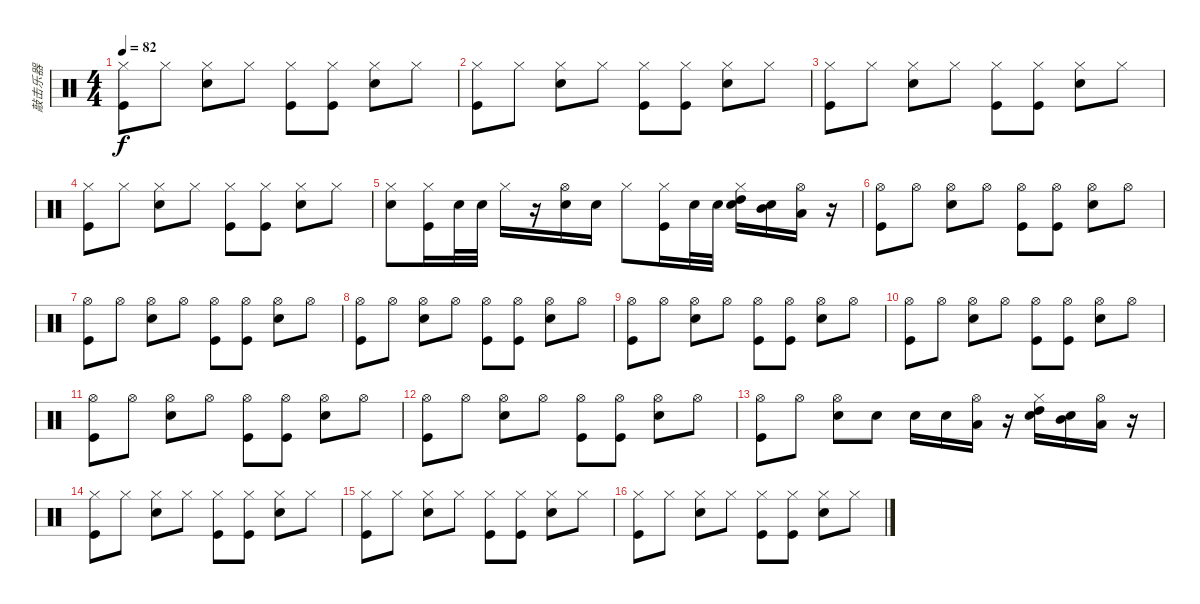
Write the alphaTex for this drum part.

\track ("敲击乐器" "敲击乐器") {instrument percussion}
\staff {score}
\articulation defaults
\ts (4 4)
\tempo 82
\clef neutral
\ks c
("Hi-Hat (closed)" "Kick (hit)").8{dy f} "Hi-Hat (closed)".8 ("Hi-Hat (closed)" "Snare (hit) 2").8 "Hi-Hat (closed)".8 ("Hi-Hat (closed)" "Kick (hit)").8 ("Hi-Hat (closed)" "Kick (hit)").8 ("Hi-Hat (closed)" "Snare (hit) 2").8 "Hi-Hat (closed)".8 |
("Hi-Hat (closed)" "Kick (hit)").8 "Hi-Hat (closed)".8 ("Hi-Hat (closed)" "Snare (hit) 2").8 "Hi-Hat (closed)".8 ("Hi-Hat (closed)" "Kick (hit)").8 ("Hi-Hat (closed)" "Kick (hit)").8 ("Hi-Hat (closed)" "Snare (hit) 2").8 "Hi-Hat (closed)".8 |
("Hi-Hat (closed)" "Kick (hit)").8 "Hi-Hat (closed)".8 ("Hi-Hat (closed)" "Snare (hit) 2").8 "Hi-Hat (closed)".8 ("Hi-Hat (closed)" "Kick (hit)").8 ("Hi-Hat (closed)" "Kick (hit)").8 ("Hi-Hat (closed)" "Snare (hit) 2").8 "Hi-Hat (closed)".8 |
("Hi-Hat (closed)" "Kick (hit)").8 "Hi-Hat (closed)".8 ("Hi-Hat (closed)" "Snare (hit) 2").8 "Hi-Hat (closed)".8 ("Hi-Hat (closed)" "Kick (hit)").8 ("Hi-Hat (closed)" "Kick (hit)").8 ("Hi-Hat (closed)" "Snare (hit) 2").8 "Hi-Hat (closed)".8 |
("Hi-Hat (closed)" "Snare (hit) 2").8 ("Hi-Hat (closed)" "Kick (hit)").16 "Snare (hit) 2".32 "Snare (hit) 2".32 "Hi-Hat (closed)".16 r.16 ("Hi-Hat (open)" "Snare (hit) 2").16 "Snare (hit) 2".16 "Hi-Hat (closed)".8 ("Hi-Hat (closed)" "Kick (hit)").16 "Snare (hit) 2".32 "Snare (hit) 2".32 ("Hi-Hat (closed)" "High Tom (hit)" "Snare (hit) 2").16 ("Mid Tom (hit)" "Snare (hit) 2").16 ("Hi-Hat (open)" "Low Tom (hit)").16 r.16 |
("Hi-Hat (open)" "Kick (hit)").8 "Hi-Hat (open)".8 ("Hi-Hat (open)" "Snare (hit) 2").8 "Hi-Hat (open)".8 ("Hi-Hat (open)" "Kick (hit)").8 ("Hi-Hat (open)" "Kick (hit)").8 ("Hi-Hat (open)" "Snare (hit) 2").8 "Hi-Hat (open)".8 |
("Hi-Hat (open)" "Kick (hit)").8 "Hi-Hat (open)".8 ("Hi-Hat (open)" "Snare (hit) 2").8 "Hi-Hat (open)".8 ("Hi-Hat (open)" "Kick (hit)").8 ("Hi-Hat (open)" "Kick (hit)").8 ("Hi-Hat (open)" "Snare (hit) 2").8 "Hi-Hat (open)".8 |
("Hi-Hat (open)" "Kick (hit)").8 "Hi-Hat (open)".8 ("Hi-Hat (open)" "Snare (hit) 2").8 "Hi-Hat (open)".8 ("Hi-Hat (open)" "Kick (hit)").8 ("Hi-Hat (open)" "Kick (hit)").8 ("Hi-Hat (open)" "Snare (hit) 2").8 "Hi-Hat (open)".8 |
("Hi-Hat (open)" "Kick (hit)").8 "Hi-Hat (open)".8 ("Hi-Hat (open)" "Snare (hit) 2").8 "Hi-Hat (open)".8 ("Hi-Hat (open)" "Kick (hit)").8 ("Hi-Hat (open)" "Kick (hit)").8 ("Hi-Hat (open)" "Snare (hit) 2").8 "Hi-Hat (open)".8 |
("Hi-Hat (open)" "Kick (hit)").8 "Hi-Hat (open)".8 ("Hi-Hat (open)" "Snare (hit) 2").8 "Hi-Hat (open)".8 ("Hi-Hat (open)" "Kick (hit)").8 ("Hi-Hat (open)" "Kick (hit)").8 ("Hi-Hat (open)" "Snare (hit) 2").8 "Hi-Hat (open)".8 |
("Hi-Hat (open)" "Kick (hit)").8 "Hi-Hat (open)".8 ("Hi-Hat (open)" "Snare (hit) 2").8 "Hi-Hat (open)".8 ("Hi-Hat (open)" "Kick (hit)").8 ("Hi-Hat (open)" "Kick (hit)").8 ("Hi-Hat (open)" "Snare (hit) 2").8 "Hi-Hat (open)".8 |
("Hi-Hat (open)" "Kick (hit)").8 "Hi-Hat (open)".8 ("Hi-Hat (open)" "Snare (hit) 2").8 "Hi-Hat (open)".8 ("Hi-Hat (open)" "Kick (hit)").8 ("Hi-Hat (open)" "Kick (hit)").8 ("Hi-Hat (open)" "Snare (hit) 2").8 "Hi-Hat (open)".8 |
("Hi-Hat (open)" "Kick (hit)").8 "Hi-Hat (open)".8 ("Hi-Hat (open)" "Snare (hit) 2").8 "Snare (hit) 2".8 "Snare (hit) 2".16 "Snare (hit) 2".16 ("Hi-Hat (open)" "Low Tom (hit)").16 r.16 ("Hi-Hat (closed)" "High Tom (hit)" "Snare (hit) 2").16 ("Mid Tom (hit)" "Snare (hit) 2").16 ("Hi-Hat (open)" "Low Tom (hit)").16 r.16 |
("Hi-Hat (closed)" "Kick (hit)").8 "Hi-Hat (closed)".8 ("Hi-Hat (closed)" "Snare (hit) 2").8 "Hi-Hat (closed)".8 ("Hi-Hat (closed)" "Kick (hit)").8 ("Hi-Hat (closed)" "Kick (hit)").8 ("Hi-Hat (closed)" "Snare (hit) 2").8 "Hi-Hat (closed)".8 |
("Hi-Hat (closed)" "Kick (hit)").8 "Hi-Hat (closed)".8 ("Hi-Hat (closed)" "Snare (hit) 2").8 "Hi-Hat (closed)".8 ("Hi-Hat (closed)" "Kick (hit)").8 ("Hi-Hat (closed)" "Kick (hit)").8 ("Hi-Hat (closed)" "Snare (hit) 2").8 "Hi-Hat (closed)".8 |
("Hi-Hat (closed)" "Kick (hit)").8 "Hi-Hat (closed)".8 ("Hi-Hat (closed)" "Snare (hit) 2").8 "Hi-Hat (closed)".8 ("Hi-Hat (closed)" "Kick (hit)").8 ("Hi-Hat (closed)" "Kick (hit)").8 ("Hi-Hat (closed)" "Snare (hit) 2").8 "Hi-Hat (closed)".8
